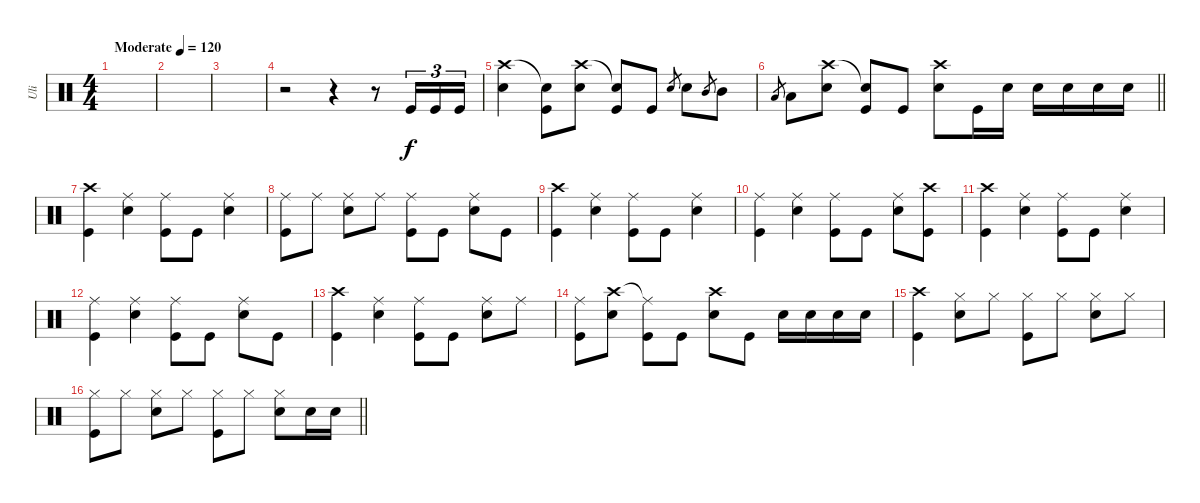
\track ("Uli" "Uli") {instrument percussion}
\staff {score}
\articulation defaults
\ts (4 4)
\tempo (120 "Moderate")
\clef neutral
\ks aminor
|
|
|
r.2 r.4 r.8 "Kick (hit)".16{tu (3 2)} "Kick (hit)".16{tu (3 2)} "Kick (hit)".16{tu (3 2)} |
("Crash high (hit)" "Snare (hit) 2").4 ("Snare (hit)"{t} "Kick (hit)").8 ("Crash high (hit)" "Snare (hit) 2").8 ("Snare (hit)"{t} "Kick (hit)").8 "Kick (hit)".8 "Snare (hit) 2".8{gr} "Snare (hit) 2".8 "Mid Tom (hit)".8{gr} "Mid Tom (hit)".8 |
\barLineRight lightlight "Low Tom (hit)".8{gr} "Low Tom (hit)".8
("Crash high (hit)" "Snare (hit) 2").8 ("Snare (hit)"{t} "Kick (hit)").8 "Kick (hit)".8 ("Crash high (hit)" "Snare (hit) 2").8 "Kick (hit)".16 "Snare (hit) 2".16 "Snare (hit) 2".16 "Snare (hit) 2".16 "Snare (hit) 2".16 "Snare (hit) 2".16 |
("Crash high (hit)" "Kick (hit)").4 ("Ride (middle)" "Snare (hit) 2").4 ("Ride (middle)" "Kick (hit)").8 "Kick (hit)".8 ("Ride (middle)" "Snare (hit) 2").4 |
("Ride (middle)" "Kick (hit)").8 "Ride (middle)".8 ("Ride (middle)" "Snare (hit) 2").8 "Ride (middle)".8 ("Ride (middle)" "Kick (hit)").8 "Kick (hit)".8 ("Ride (middle)" "Snare (hit) 2").8 "Kick (hit)".8 |
("Crash high (hit)" "Kick (hit)").4 ("Ride (middle)" "Snare (hit) 2").4 ("Ride (middle)" "Kick (hit)").8 "Kick (hit)".8 ("Ride (middle)" "Snare (hit) 2").4 |
("Ride (middle)" "Kick (hit)").4 ("Ride (middle)" "Snare (hit) 2").4 ("Ride (middle)" "Kick (hit)").8 "Kick (hit)".8 ("Ride (middle)" "Snare (hit) 2").8 ("Crash high (hit)" "Kick (hit)").8 |
("Crash high (hit)" "Kick (hit)").4 ("Ride (middle)" "Snare (hit) 2").4 ("Ride (middle)" "Kick (hit)").8 "Kick (hit)".8 ("Ride (middle)" "Snare (hit) 2").4 |
("Ride (middle)" "Kick (hit)").4 ("Ride (middle)" "Snare (hit) 2").4 ("Ride (middle)" "Kick (hit)").8 "Kick (hit)".8 ("Ride (middle)" "Snare (hit) 2").8 "Kick (hit)".8 |
("Crash high (hit)" "Kick (hit)").4 ("Ride (middle)" "Snare (hit) 2").4 ("Ride (middle)" "Kick (hit)").8 "Kick (hit)".8 ("Ride (middle)" "Snare (hit) 2").8 "Ride (middle)".8 |
("Ride (middle)" "Kick (hit)").8 ("Crash high (hit)" "Snare (hit) 2").8 ("Ride (middle)"{t} "Kick (hit)").8 "Kick (hit)".8 ("Crash high (hit)" "Snare (hit) 2").8 "Kick (hit)".8 "Snare (hit) 2".16 "Snare (hit) 2".16 "Snare (hit) 2".16 "Snare (hit) 2".16 |
("Crash high (hit)" "Kick (hit)").4 ("Hi-Hat (closed)" "Snare (hit) 2").8 "Hi-Hat (closed)".8 ("Hi-Hat (closed)" "Kick (hit)").8 "Hi-Hat (closed)".8 ("Hi-Hat (closed)" "Snare (hit) 2").8 "Hi-Hat (closed)".8 |
\barLineRight lightlight
("Hi-Hat (closed)" "Kick (hit)").8 "Hi-Hat (closed)".8 ("Hi-Hat (closed)" "Snare (hit) 2").8 "Hi-Hat (closed)".8 ("Hi-Hat (closed)" "Kick (hit)").8 "Hi-Hat (closed)".8 ("Hi-Hat (closed)" "Snare (hit) 2").8 "Snare (hit) 2".16 "Snare (hit) 2".16
